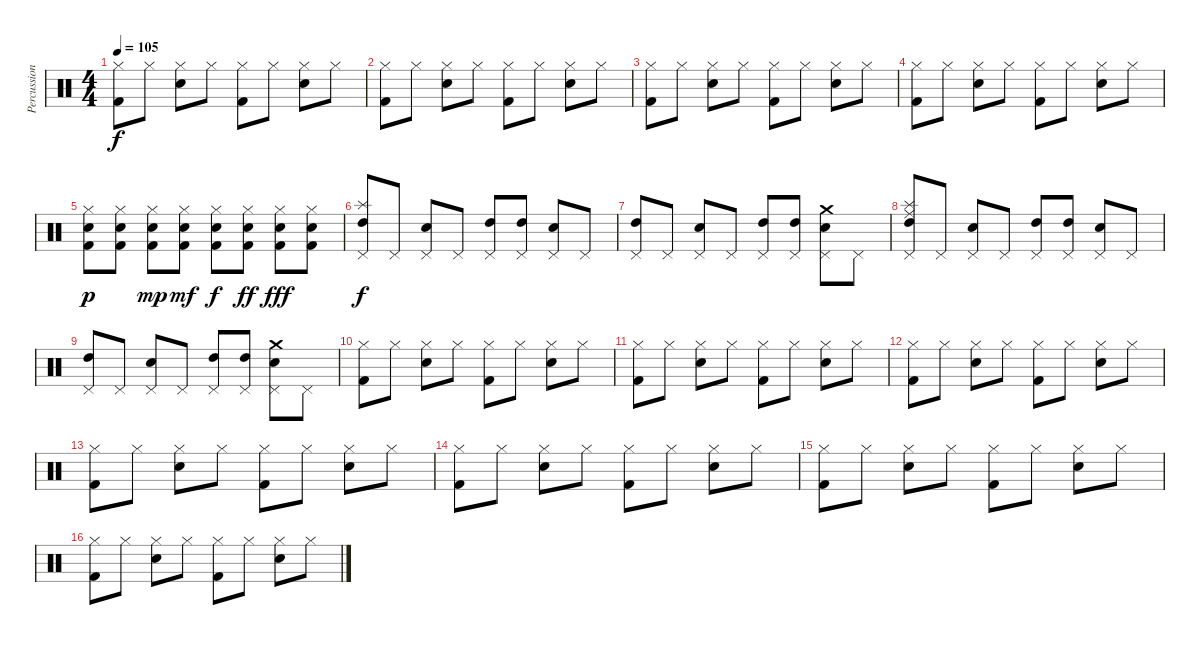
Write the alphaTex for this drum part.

\track ("Percussions" "Percussion") {instrument percussion}
\staff {score}
\articulation defaults
\ts (4 4)
\tempo 105
\clef neutral
\ks c
("Hi-Hat (closed)" "Kick (hit) 2").8{dy f} "Hi-Hat (closed)".8 ("Hi-Hat (closed)" "Electric Snare (hit)").8 "Hi-Hat (closed)".8 ("Hi-Hat (closed)" "Kick (hit) 2").8 "Hi-Hat (closed)".8 ("Hi-Hat (closed)" "Electric Snare (hit)").8 "Hi-Hat (closed)".8 |
("Hi-Hat (closed)" "Kick (hit) 2").8 "Hi-Hat (closed)".8 ("Hi-Hat (closed)" "Electric Snare (hit)").8 "Hi-Hat (closed)".8 ("Hi-Hat (closed)" "Kick (hit) 2").8 "Hi-Hat (closed)".8 ("Hi-Hat (closed)" "Electric Snare (hit)").8 "Hi-Hat (closed)".8 |
("Hi-Hat (closed)" "Kick (hit) 2").8 "Hi-Hat (closed)".8 ("Hi-Hat (closed)" "Electric Snare (hit)").8 "Hi-Hat (closed)".8 ("Hi-Hat (closed)" "Kick (hit) 2").8 "Hi-Hat (closed)".8 ("Hi-Hat (closed)" "Electric Snare (hit)").8 "Hi-Hat (closed)".8 |
("Hi-Hat (closed)" "Kick (hit) 2").8 "Hi-Hat (closed)".8 ("Hi-Hat (closed)" "Electric Snare (hit)").8 "Hi-Hat (closed)".8 ("Hi-Hat (closed)" "Kick (hit) 2").8 "Hi-Hat (closed)".8 ("Hi-Hat (closed)" "Electric Snare (hit)").8 "Hi-Hat (closed)".8 |
("Hi-Hat (closed)" "Electric Snare (hit)" "Kick (hit) 2").8{dy p} ("Hi-Hat (closed)" "Electric Snare (hit)" "Kick (hit) 2").8 ("Hi-Hat (closed)" "Electric Snare (hit)" "Kick (hit) 2").8{dy mp} ("Hi-Hat (closed)" "Electric Snare (hit)" "Kick (hit) 2").8{dy mf} ("Hi-Hat (closed)" "Electric Snare (hit)" "Kick (hit) 2").8{dy f} ("Hi-Hat (closed)" "Electric Snare (hit)" "Kick (hit) 2").8{dy ff} ("Hi-Hat (closed)" "Electric Snare (hit)" "Kick (hit) 2").8{dy fff} ("Hi-Hat (closed)" "Electric Snare (hit)" "Kick (hit) 2").8 |
("High Tom (hit)" "Splash (hit)" "Pedal Hi-Hat (hit)").8{dy f} "Pedal Hi-Hat (hit)".8 ("Electric Snare (hit)" "Pedal Hi-Hat (hit)").8 "Pedal Hi-Hat (hit)".8 ("High Tom (hit)" "Pedal Hi-Hat (hit)").8 ("High Tom (hit)" "Pedal Hi-Hat (hit)").8 ("Electric Snare (hit)" "Pedal Hi-Hat (hit)").8 "Pedal Hi-Hat (hit)".8 |
("High Tom (hit)" "Pedal Hi-Hat (hit)").8 "Pedal Hi-Hat (hit)".8 ("Electric Snare (hit)" "Pedal Hi-Hat (hit)").8 "Pedal Hi-Hat (hit)".8 ("High Tom (hit)" "Pedal Hi-Hat (hit)").8 ("High Tom (hit)" "Pedal Hi-Hat (hit)").8 ("Electric Snare (hit)" "Crash medium (hit)" "Pedal Hi-Hat (hit)").8 "Pedal Hi-Hat (hit)".8 |
("High Tom (hit)" "Splash (hit)" "Ride (middle)" "Pedal Hi-Hat (hit)").8 "Pedal Hi-Hat (hit)".8 ("Electric Snare (hit)" "Pedal Hi-Hat (hit)").8 "Pedal Hi-Hat (hit)".8 ("High Tom (hit)" "Pedal Hi-Hat (hit)").8 ("High Tom (hit)" "Pedal Hi-Hat (hit)").8 ("Electric Snare (hit)" "Pedal Hi-Hat (hit)").8 "Pedal Hi-Hat (hit)".8 |
("High Tom (hit)" "Pedal Hi-Hat (hit)").8 "Pedal Hi-Hat (hit)".8 ("Electric Snare (hit)" "Pedal Hi-Hat (hit)").8 "Pedal Hi-Hat (hit)".8 ("High Tom (hit)" "Pedal Hi-Hat (hit)").8 ("High Tom (hit)" "Pedal Hi-Hat (hit)").8 ("Electric Snare (hit)" "Crash medium (hit)" "Pedal Hi-Hat (hit)").8 "Pedal Hi-Hat (hit)".8 |
("Hi-Hat (closed)" "Kick (hit) 2").8 "Hi-Hat (closed)".8 ("Hi-Hat (closed)" "Electric Snare (hit)").8 "Hi-Hat (closed)".8 ("Hi-Hat (closed)" "Kick (hit) 2").8 "Hi-Hat (closed)".8 ("Hi-Hat (closed)" "Electric Snare (hit)").8 "Hi-Hat (closed)".8 |
("Hi-Hat (closed)" "Kick (hit) 2").8 "Hi-Hat (closed)".8 ("Hi-Hat (closed)" "Electric Snare (hit)").8 "Hi-Hat (closed)".8 ("Hi-Hat (closed)" "Kick (hit) 2").8 "Hi-Hat (closed)".8 ("Hi-Hat (closed)" "Electric Snare (hit)").8 "Hi-Hat (closed)".8 |
("Hi-Hat (closed)" "Kick (hit) 2").8 "Hi-Hat (closed)".8 ("Hi-Hat (closed)" "Electric Snare (hit)").8 "Hi-Hat (closed)".8 ("Hi-Hat (closed)" "Kick (hit) 2").8 "Hi-Hat (closed)".8 ("Hi-Hat (closed)" "Electric Snare (hit)").8 "Hi-Hat (closed)".8 |
("Hi-Hat (closed)" "Kick (hit) 2").8 "Hi-Hat (closed)".8 ("Hi-Hat (closed)" "Electric Snare (hit)").8 "Hi-Hat (closed)".8 ("Hi-Hat (closed)" "Kick (hit) 2").8 "Hi-Hat (closed)".8 ("Hi-Hat (closed)" "Electric Snare (hit)").8 "Hi-Hat (closed)".8 |
("Hi-Hat (closed)" "Kick (hit) 2").8 "Hi-Hat (closed)".8 ("Hi-Hat (closed)" "Electric Snare (hit)").8 "Hi-Hat (closed)".8 ("Hi-Hat (closed)" "Kick (hit) 2").8 "Hi-Hat (closed)".8 ("Hi-Hat (closed)" "Electric Snare (hit)").8 "Hi-Hat (closed)".8 |
("Hi-Hat (closed)" "Kick (hit) 2").8 "Hi-Hat (closed)".8 ("Hi-Hat (closed)" "Electric Snare (hit)").8 "Hi-Hat (closed)".8 ("Hi-Hat (closed)" "Kick (hit) 2").8 "Hi-Hat (closed)".8 ("Hi-Hat (closed)" "Electric Snare (hit)").8 "Hi-Hat (closed)".8 |
("Hi-Hat (closed)" "Kick (hit) 2").8 "Hi-Hat (closed)".8 ("Hi-Hat (closed)" "Electric Snare (hit)").8 "Hi-Hat (closed)".8 ("Hi-Hat (closed)" "Kick (hit) 2").8 "Hi-Hat (closed)".8 ("Hi-Hat (closed)" "Electric Snare (hit)").8 "Hi-Hat (closed)".8
